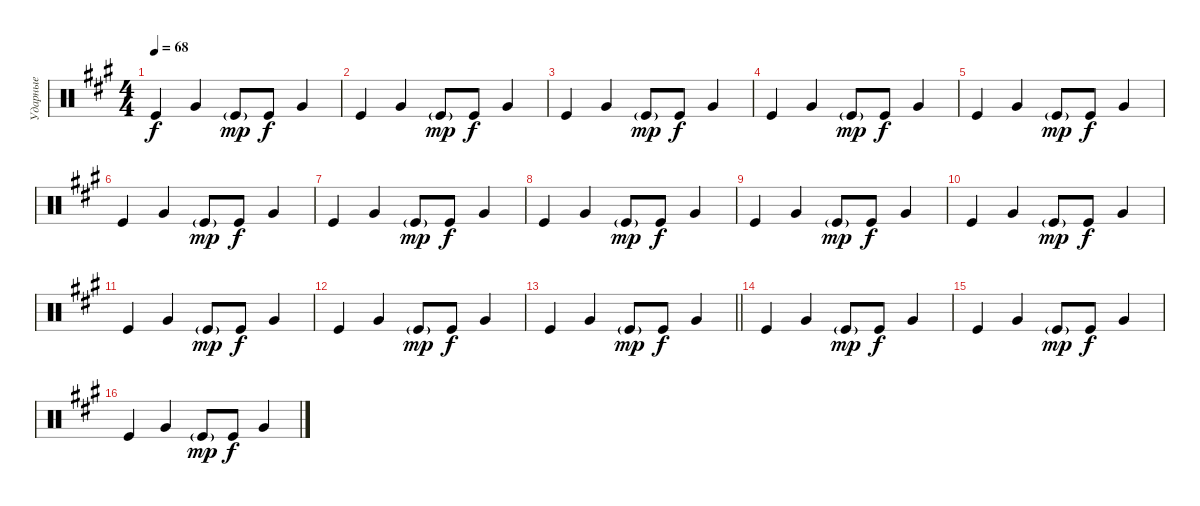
\track ("Ударные" "Ударные") {instrument percussion}
\staff
\articulation defaults
\ts (4 4)
\tempo 68
\clef neutral
\ks a "Kick (hit)".4{dy f} "Very Low Tom (hit)".4 "Kick (hit)"{g}.8{dy mp} "Kick (hit)".8{dy f} "Very Low Tom (hit)".4
|
"Kick (hit)".4 "Very Low Tom (hit)".4 "Kick (hit)"{g}.8{dy mp} "Kick (hit)".8{dy f} "Very Low Tom (hit)".4 |
"Kick (hit)".4 "Very Low Tom (hit)".4 "Kick (hit)"{g}.8{dy mp} "Kick (hit)".8{dy f} "Very Low Tom (hit)".4 |
"Kick (hit)".4 "Very Low Tom (hit)".4 "Kick (hit)"{g}.8{dy mp} "Kick (hit)".8{dy f} "Very Low Tom (hit)".4 |
"Kick (hit)".4 "Very Low Tom (hit)".4 "Kick (hit)"{g}.8{dy mp} "Kick (hit)".8{dy f} "Very Low Tom (hit)".4 |
"Kick (hit)".4 "Very Low Tom (hit)".4 "Kick (hit)"{g}.8{dy mp} "Kick (hit)".8{dy f} "Very Low Tom (hit)".4 |
"Kick (hit)".4 "Very Low Tom (hit)".4 "Kick (hit)"{g}.8{dy mp} "Kick (hit)".8{dy f} "Very Low Tom (hit)".4 |
"Kick (hit)".4 "Very Low Tom (hit)".4 "Kick (hit)"{g}.8{dy mp} "Kick (hit)".8{dy f} "Very Low Tom (hit)".4 |
"Kick (hit)".4 "Very Low Tom (hit)".4 "Kick (hit)"{g}.8{dy mp} "Kick (hit)".8{dy f} "Very Low Tom (hit)".4 |
"Kick (hit)".4 "Very Low Tom (hit)".4 "Kick (hit)"{g}.8{dy mp} "Kick (hit)".8{dy f} "Very Low Tom (hit)".4 |
"Kick (hit)".4 "Very Low Tom (hit)".4 "Kick (hit)"{g}.8{dy mp} "Kick (hit)".8{dy f} "Very Low Tom (hit)".4 |
"Kick (hit)".4 "Very Low Tom (hit)".4 "Kick (hit)"{g}.8{dy mp} "Kick (hit)".8{dy f} "Very Low Tom (hit)".4 |
\barLineRight lightlight "Kick (hit)".4 "Very Low Tom (hit)".4 "Kick (hit)"{g}.8{dy mp} "Kick (hit)".8{dy f} "Very Low Tom (hit)".4
|
"Kick (hit)".4 "Very Low Tom (hit)".4 "Kick (hit)"{g}.8{dy mp} "Kick (hit)".8{dy f} "Very Low Tom (hit)".4 |
"Kick (hit)".4 "Very Low Tom (hit)".4 "Kick (hit)"{g}.8{dy mp} "Kick (hit)".8{dy f} "Very Low Tom (hit)".4 |
"Kick (hit)".4 "Very Low Tom (hit)".4 "Kick (hit)"{g}.8{dy mp} "Kick (hit)".8{dy f} "Very Low Tom (hit)".4
